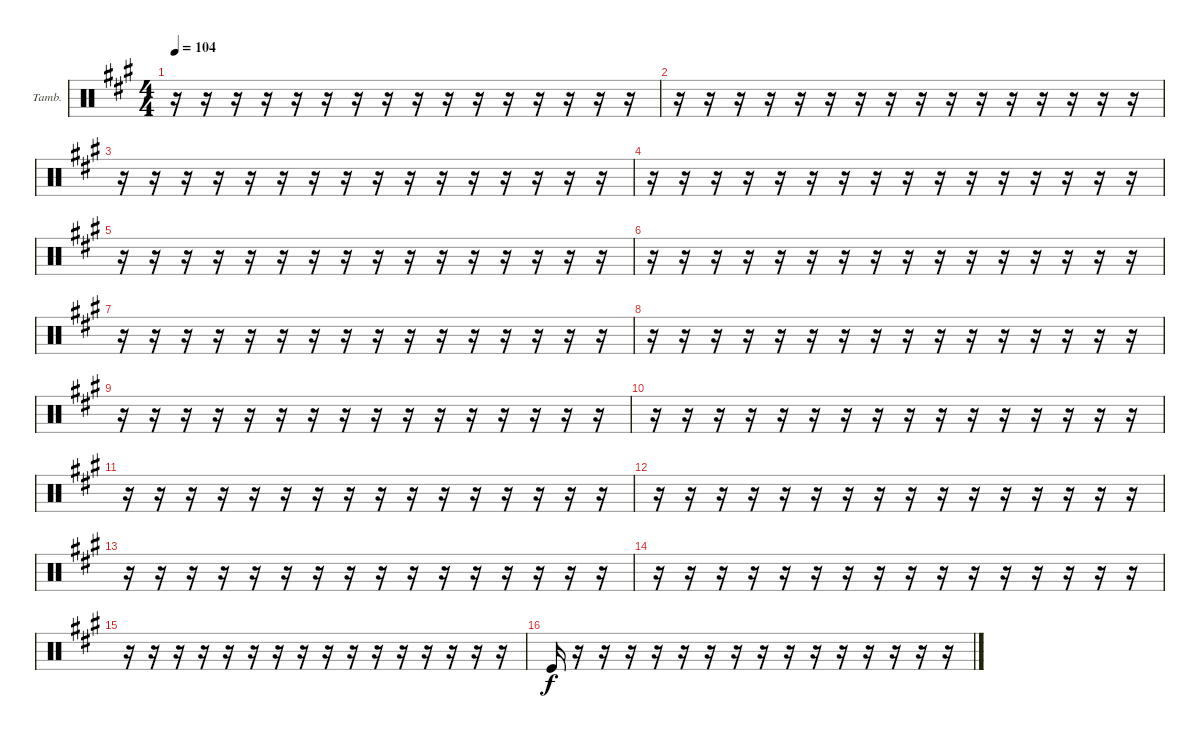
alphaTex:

\bracketExtendMode groupsimilarinstruments
\firstSystemTrackNameOrientation horizontal
\otherSystemsTrackNameOrientation horizontal
\track ("Tambourine" "Tamb.") {instrument percussion}
\staff {score}
\articulation defaults
\ts (4 4)
\tempo 104
\clef neutral
\ks a
r.16{dy f} r.16 r.16 r.16 r.16 r.16 r.16 r.16 r.16 r.16 r.16 r.16 r.16 r.16 r.16 r.16 |
r.16 r.16 r.16 r.16 r.16 r.16 r.16 r.16 r.16 r.16 r.16 r.16 r.16 r.16 r.16 r.16 |
r.16 r.16 r.16 r.16 r.16 r.16 r.16 r.16 r.16 r.16 r.16 r.16 r.16 r.16 r.16 r.16 |
r.16 r.16 r.16 r.16 r.16 r.16 r.16 r.16 r.16 r.16 r.16 r.16 r.16 r.16 r.16 r.16 |
r.16 r.16 r.16 r.16 r.16 r.16 r.16 r.16 r.16 r.16 r.16 r.16 r.16 r.16 r.16 r.16 |
r.16 r.16 r.16 r.16 r.16 r.16 r.16 r.16 r.16 r.16 r.16 r.16 r.16 r.16 r.16 r.16 |
r.16 r.16 r.16 r.16 r.16 r.16 r.16 r.16 r.16 r.16 r.16 r.16 r.16 r.16 r.16 r.16 |
r.16 r.16 r.16 r.16 r.16 r.16 r.16 r.16 r.16 r.16 r.16 r.16 r.16 r.16 r.16 r.16 |
r.16 r.16 r.16 r.16 r.16 r.16 r.16 r.16 r.16 r.16 r.16 r.16 r.16 r.16 r.16 r.16 |
r.16 r.16 r.16 r.16 r.16 r.16 r.16 r.16 r.16 r.16 r.16 r.16 r.16 r.16 r.16 r.16 |
r.16 r.16 r.16 r.16 r.16 r.16 r.16 r.16 r.16 r.16 r.16 r.16 r.16 r.16 r.16 r.16 |
r.16 r.16 r.16 r.16 r.16 r.16 r.16 r.16 r.16 r.16 r.16 r.16 r.16 r.16 r.16 r.16 |
r.16 r.16 r.16 r.16 r.16 r.16 r.16 r.16 r.16 r.16 r.16 r.16 r.16 r.16 r.16 r.16 |
r.16 r.16 r.16 r.16 r.16 r.16 r.16 r.16 r.16 r.16 r.16 r.16 r.16 r.16 r.16 r.16 |
r.16 r.16 r.16 r.16 r.16 r.16 r.16 r.16 r.16 r.16 r.16 r.16 r.16 r.16 r.16 r.16 |
"Kick (hit)".16 r.16 r.16 r.16 r.16 r.16 r.16 r.16 r.16 r.16 r.16 r.16 r.16 r.16 r.16 r.16
